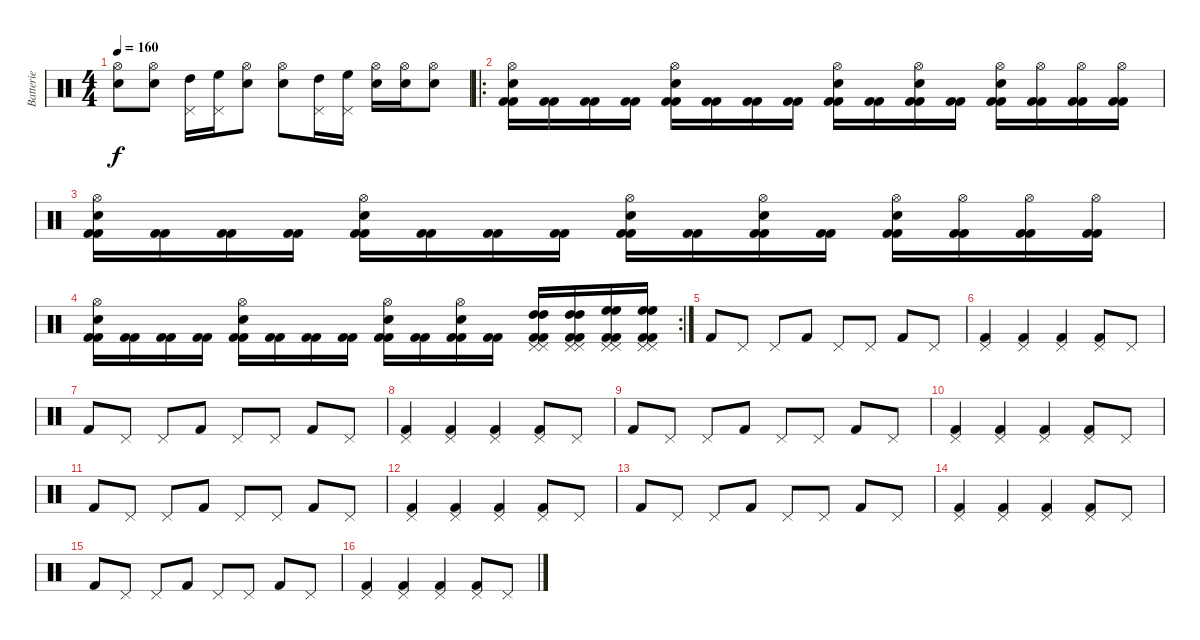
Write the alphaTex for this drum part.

\track ("Batterie" "Batterie") {instrument percussion}
\staff {score}
\articulation defaults
\ts (4 4)
\tempo 160
\clef neutral
\ks c
("Hi-Hat (open)" "Snare (hit) 2").8{dy f} ("Hi-Hat (open)" "Snare (hit) 2").8 ("Pedal Hi-Hat (hit)" "High Tom (hit)").16 ("Pedal Hi-Hat (hit)" "High Floor Tom (hit)").16 ("Hi-Hat (open)" "Snare (hit) 2").8 ("Hi-Hat (open)" "Snare (hit) 2").8 ("Pedal Hi-Hat (hit)" "High Tom (hit)").16 ("Pedal Hi-Hat (hit)" "High Floor Tom (hit)").16 ("Hi-Hat (open)" "Snare (hit) 2").16 ("Hi-Hat (open)" "Snare (hit) 2").16 ("Hi-Hat (open)" "Snare (hit) 2").8 |
\ro
("Kick (hit) 2" "Hi-Hat (open)" "Snare (hit) 2" "Kick (hit) 2").16 ("Kick (hit) 2" "Kick (hit) 2").16 ("Kick (hit) 2" "Kick (hit) 2").16 ("Kick (hit) 2" "Kick (hit) 2").16 ("Kick (hit) 2" "Hi-Hat (open)" "Snare (hit) 2" "Kick (hit) 2").16 ("Kick (hit) 2" "Kick (hit) 2").16 ("Kick (hit) 2" "Kick (hit) 2").16 ("Kick (hit) 2" "Kick (hit) 2").16 ("Kick (hit) 2" "Hi-Hat (open)" "Snare (hit) 2" "Kick (hit) 2").16 ("Kick (hit) 2" "Kick (hit) 2").16 ("Kick (hit) 2" "Hi-Hat (open)" "Snare (hit) 2" "Kick (hit) 2").16 ("Kick (hit) 2" "Kick (hit) 2").16 ("Kick (hit) 2" "Hi-Hat (open)" "Snare (hit) 2" "Kick (hit) 2").16 ("Kick (hit) 2" "Hi-Hat (open)" "Kick (hit) 2").16 ("Kick (hit) 2" "Hi-Hat (open)" "Kick (hit) 2").16 ("Kick (hit) 2" "Hi-Hat (open)" "Kick (hit) 2").16 |
("Kick (hit) 2" "Hi-Hat (open)" "Snare (hit) 2" "Kick (hit) 2").16 ("Kick (hit) 2" "Kick (hit) 2").16 ("Kick (hit) 2" "Kick (hit) 2").16 ("Kick (hit) 2" "Kick (hit) 2").16 ("Kick (hit) 2" "Hi-Hat (open)" "Snare (hit) 2" "Kick (hit) 2").16 ("Kick (hit) 2" "Kick (hit) 2").16 ("Kick (hit) 2" "Kick (hit) 2").16 ("Kick (hit) 2" "Kick (hit) 2").16 ("Kick (hit) 2" "Hi-Hat (open)" "Snare (hit) 2" "Kick (hit) 2").16 ("Kick (hit) 2" "Kick (hit) 2").16 ("Kick (hit) 2" "Hi-Hat (open)" "Snare (hit) 2" "Kick (hit) 2").16 ("Kick (hit) 2" "Kick (hit) 2").16 ("Kick (hit) 2" "Hi-Hat (open)" "Snare (hit) 2" "Kick (hit) 2").16 ("Kick (hit) 2" "Hi-Hat (open)" "Kick (hit) 2").16 ("Kick (hit) 2" "Hi-Hat (open)" "Kick (hit) 2").16 ("Kick (hit) 2" "Hi-Hat (open)" "Kick (hit) 2").16 |
\rc 2
("Kick (hit) 2" "Hi-Hat (open)" "Snare (hit) 2" "Kick (hit) 2").16 ("Kick (hit) 2" "Kick (hit) 2").16 ("Kick (hit) 2" "Kick (hit) 2").16 ("Kick (hit) 2" "Kick (hit) 2").16 ("Kick (hit) 2" "Hi-Hat (open)" "Snare (hit) 2" "Kick (hit) 2").16 ("Kick (hit) 2" "Kick (hit) 2").16 ("Kick (hit) 2" "Kick (hit) 2").16 ("Kick (hit) 2" "Kick (hit) 2").16 ("Kick (hit) 2" "Hi-Hat (open)" "Snare (hit) 2" "Kick (hit) 2").16 ("Kick (hit) 2" "Kick (hit) 2").16 ("Kick (hit) 2" "Hi-Hat (open)" "Snare (hit) 2" "Kick (hit) 2").16 ("Kick (hit) 2" "Kick (hit) 2").16 ("Kick (hit) 2" "Pedal Hi-Hat (hit)" "High Tom (hit)" "Pedal Hi-Hat (hit)" "High Tom (hit)" "Kick (hit) 2").16 ("Kick (hit) 2" "Pedal Hi-Hat (hit)" "High Tom (hit)" "Pedal Hi-Hat (hit)" "High Tom (hit)" "Kick (hit) 2").16 ("Kick (hit) 2" "Pedal Hi-Hat (hit)" "High Floor Tom (hit)" "Pedal Hi-Hat (hit)" "High Floor Tom (hit)" "Kick (hit) 2").16 ("Kick (hit) 2" "Pedal Hi-Hat (hit)" "High Floor Tom (hit)" "Pedal Hi-Hat (hit)" "High Floor Tom (hit)" "Kick (hit) 2").16 |
"Kick (hit) 2".8 "Pedal Hi-Hat (hit)".8 "Pedal Hi-Hat (hit)".8 "Kick (hit) 2".8 "Pedal Hi-Hat (hit)".8 "Pedal Hi-Hat (hit)".8 "Kick (hit) 2".8 "Pedal Hi-Hat (hit)".8 |
("Pedal Hi-Hat (hit)" "Kick (hit) 2").4 ("Pedal Hi-Hat (hit)" "Kick (hit) 2").4 ("Pedal Hi-Hat (hit)" "Kick (hit) 2").4 ("Pedal Hi-Hat (hit)" "Kick (hit) 2").8 "Pedal Hi-Hat (hit)".8 |
"Kick (hit) 2".8 "Pedal Hi-Hat (hit)".8 "Pedal Hi-Hat (hit)".8 "Kick (hit) 2".8 "Pedal Hi-Hat (hit)".8 "Pedal Hi-Hat (hit)".8 "Kick (hit) 2".8 "Pedal Hi-Hat (hit)".8 |
("Pedal Hi-Hat (hit)" "Kick (hit) 2").4 ("Pedal Hi-Hat (hit)" "Kick (hit) 2").4 ("Pedal Hi-Hat (hit)" "Kick (hit) 2").4 ("Pedal Hi-Hat (hit)" "Kick (hit) 2").8 "Pedal Hi-Hat (hit)".8 |
"Kick (hit) 2".8 "Pedal Hi-Hat (hit)".8 "Pedal Hi-Hat (hit)".8 "Kick (hit) 2".8 "Pedal Hi-Hat (hit)".8 "Pedal Hi-Hat (hit)".8 "Kick (hit) 2".8 "Pedal Hi-Hat (hit)".8 |
("Pedal Hi-Hat (hit)" "Kick (hit) 2").4 ("Pedal Hi-Hat (hit)" "Kick (hit) 2").4 ("Pedal Hi-Hat (hit)" "Kick (hit) 2").4 ("Pedal Hi-Hat (hit)" "Kick (hit) 2").8 "Pedal Hi-Hat (hit)".8 |
"Kick (hit) 2".8 "Pedal Hi-Hat (hit)".8 "Pedal Hi-Hat (hit)".8 "Kick (hit) 2".8 "Pedal Hi-Hat (hit)".8 "Pedal Hi-Hat (hit)".8 "Kick (hit) 2".8 "Pedal Hi-Hat (hit)".8 |
("Pedal Hi-Hat (hit)" "Kick (hit) 2").4 ("Pedal Hi-Hat (hit)" "Kick (hit) 2").4 ("Pedal Hi-Hat (hit)" "Kick (hit) 2").4 ("Pedal Hi-Hat (hit)" "Kick (hit) 2").8 "Pedal Hi-Hat (hit)".8 |
"Kick (hit) 2".8 "Pedal Hi-Hat (hit)".8 "Pedal Hi-Hat (hit)".8 "Kick (hit) 2".8 "Pedal Hi-Hat (hit)".8 "Pedal Hi-Hat (hit)".8 "Kick (hit) 2".8 "Pedal Hi-Hat (hit)".8 |
("Pedal Hi-Hat (hit)" "Kick (hit) 2").4 ("Pedal Hi-Hat (hit)" "Kick (hit) 2").4 ("Pedal Hi-Hat (hit)" "Kick (hit) 2").4 ("Pedal Hi-Hat (hit)" "Kick (hit) 2").8 "Pedal Hi-Hat (hit)".8 |
"Kick (hit) 2".8 "Pedal Hi-Hat (hit)".8 "Pedal Hi-Hat (hit)".8 "Kick (hit) 2".8 "Pedal Hi-Hat (hit)".8 "Pedal Hi-Hat (hit)".8 "Kick (hit) 2".8 "Pedal Hi-Hat (hit)".8 |
("Pedal Hi-Hat (hit)" "Kick (hit) 2").4 ("Pedal Hi-Hat (hit)" "Kick (hit) 2").4 ("Pedal Hi-Hat (hit)" "Kick (hit) 2").4 ("Pedal Hi-Hat (hit)" "Kick (hit) 2").8 "Pedal Hi-Hat (hit)".8
